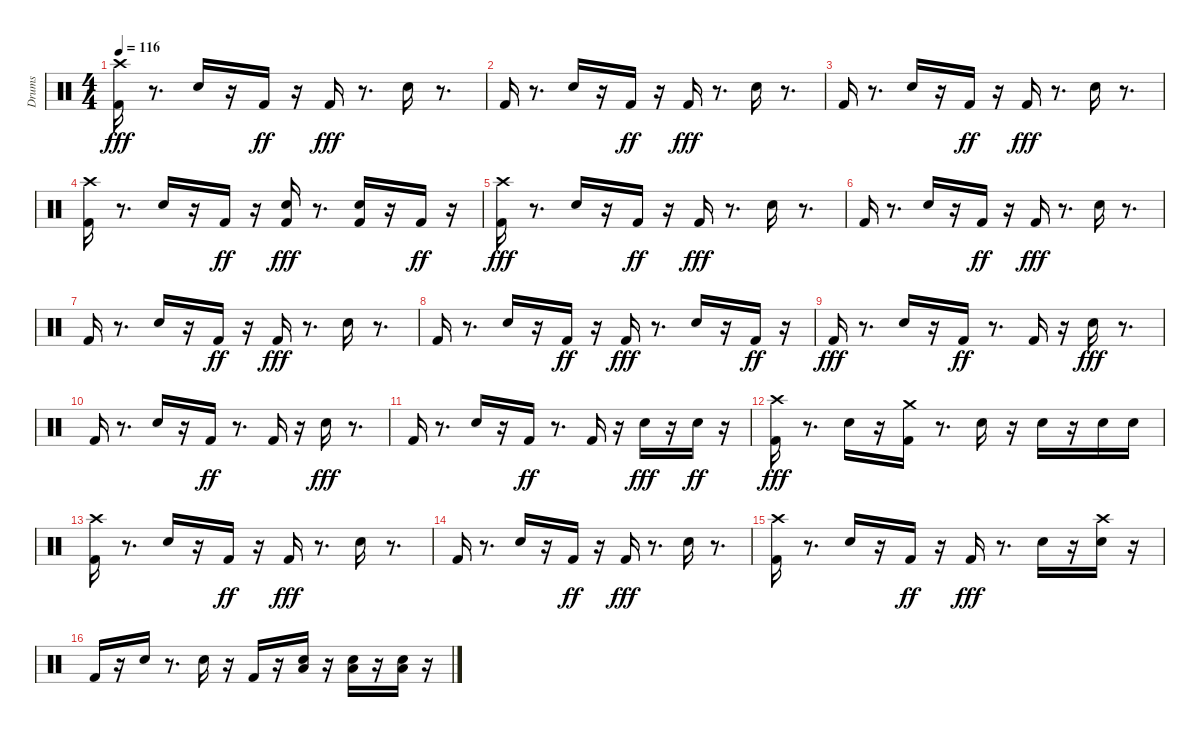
\track ("Drums" "Drums") {instrument percussion}
\staff {score}
\articulation defaults
\ts (4 4)
\tempo 116
\clef neutral
\ks c
("Crash high (hit)" "Kick (hit) 2").16{dy fff} r.8{d} "Snare (hit) 2".16 r.16 "Kick (hit) 2".16{dy ff} r.16 "Kick (hit) 2".16{dy fff} r.8{d} "Snare (hit) 2".16 r.8{d} |
"Kick (hit) 2".16 r.8{d} "Snare (hit) 2".16 r.16 "Kick (hit) 2".16{dy ff} r.16 "Kick (hit) 2".16{dy fff} r.8{d} "Snare (hit) 2".16 r.8{d} |
"Kick (hit) 2".16 r.8{d} "Snare (hit) 2".16 r.16 "Kick (hit) 2".16{dy ff} r.16 "Kick (hit) 2".16{dy fff} r.8{d} "Snare (hit) 2".16 r.8{d} |
("Crash high (hit)" "Kick (hit) 2").16 r.8{d} "Snare (hit) 2".16 r.16 "Kick (hit) 2".16{dy ff} r.16 ("Kick (hit) 2" "Snare (hit) 2").16{dy fff} r.8{d} ("Kick (hit) 2" "Snare (hit) 2").16 r.16 "Kick (hit) 2".16{dy ff} r.16 |
("Crash high (hit)" "Kick (hit) 2").16{dy fff} r.8{d} "Snare (hit) 2".16 r.16 "Kick (hit) 2".16{dy ff} r.16 "Kick (hit) 2".16{dy fff} r.8{d} "Snare (hit) 2".16 r.8{d} |
"Kick (hit) 2".16 r.8{d} "Snare (hit) 2".16 r.16 "Kick (hit) 2".16{dy ff} r.16 "Kick (hit) 2".16{dy fff} r.8{d} "Snare (hit) 2".16 r.8{d} |
"Kick (hit) 2".16 r.8{d} "Snare (hit) 2".16 r.16 "Kick (hit) 2".16{dy ff} r.16 "Kick (hit) 2".16{dy fff} r.8{d} "Snare (hit) 2".16 r.8{d} |
"Kick (hit) 2".16 r.8{d} "Snare (hit) 2".16 r.16 "Kick (hit) 2".16{dy ff} r.16 "Kick (hit) 2".16{dy fff} r.8{d} "Snare (hit) 2".16 r.16 "Kick (hit) 2".16{dy ff} r.16 |
"Kick (hit) 2".16{dy fff} r.8{d} "Snare (hit) 2".16 r.16 "Kick (hit) 2".16{dy ff} r.8{d} "Kick (hit) 2".16 r.16 "Snare (hit) 2".16{dy fff} r.8{d} |
"Kick (hit) 2".16 r.8{d} "Snare (hit) 2".16 r.16 "Kick (hit) 2".16{dy ff} r.8{d} "Kick (hit) 2".16 r.16 "Snare (hit) 2".16{dy fff} r.8{d} |
"Kick (hit) 2".16 r.8{d} "Snare (hit) 2".16 r.16 "Kick (hit) 2".16{dy ff} r.8{d} "Kick (hit) 2".16 r.16 "Snare (hit) 2".16{dy fff} r.16 "Snare (hit) 2".16{dy ff} r.16 |
("Crash high (hit)" "Kick (hit) 2").16{dy fff} r.8{d} "Snare (hit) 2".16 r.16 ("Crash medium (hit)" "Kick (hit) 2").16 r.8{d} "Snare (hit) 2".16 r.16 "Snare (hit) 2".16 r.16 "Snare (hit) 2".16 "Snare (hit) 2".16 |
("Crash high (hit)" "Kick (hit) 2").16 r.8{d} "Snare (hit) 2".16 r.16 "Kick (hit) 2".16{dy ff} r.16 "Kick (hit) 2".16{dy fff} r.8{d} "Snare (hit) 2".16 r.8{d} |
"Kick (hit) 2".16 r.8{d} "Snare (hit) 2".16 r.16 "Kick (hit) 2".16{dy ff} r.16 "Kick (hit) 2".16{dy fff} r.8{d} "Snare (hit) 2".16 r.8{d} |
("Crash high (hit)" "Kick (hit) 2").16 r.8{d} "Snare (hit) 2".16 r.16 "Kick (hit) 2".16{dy ff} r.16 "Kick (hit) 2".16{dy fff} r.8{d} "Snare (hit) 2".16 r.16 ("Crash high (hit)" "Snare (hit) 2").16 r.16 |
"Kick (hit) 2".16 r.16 "Snare (hit) 2".16 r.8{d} "Snare (hit) 2".16 r.16 "Kick (hit) 2".16 r.16 ("Low Tom (hit)" "Snare (hit) 2").16 r.16 ("Low Tom (hit)" "Snare (hit) 2").16 r.16 ("Low Tom (hit)" "Snare (hit) 2").16 r.16
